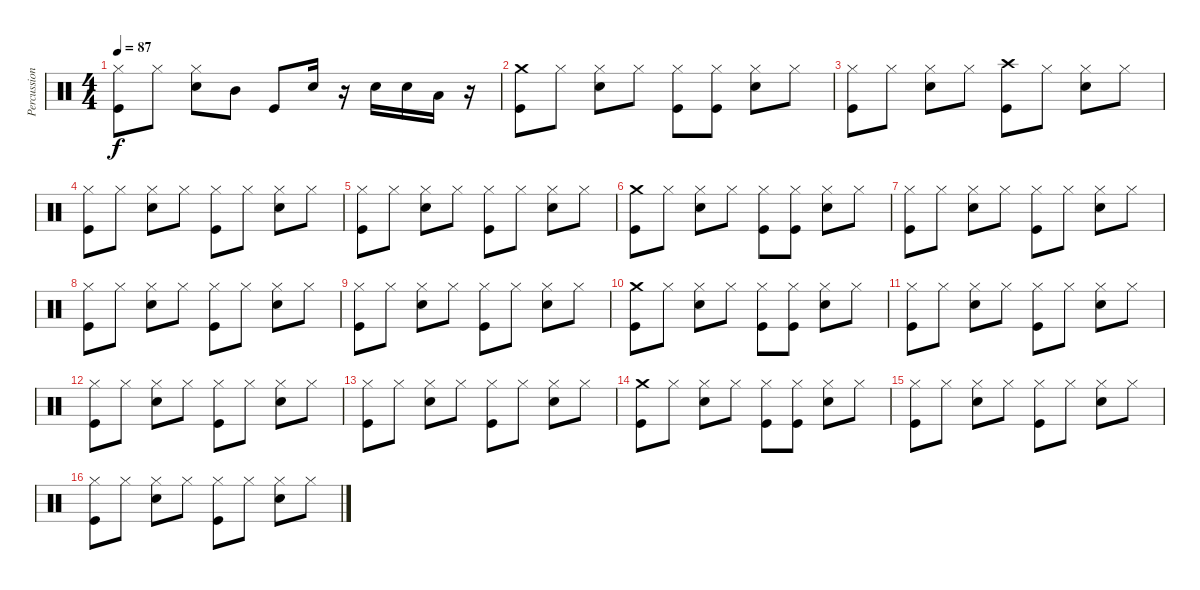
\track ("Percussion" "Percussion") {instrument percussion}
\staff {score}
\articulation defaults
\ts (4 4)
\tempo 87
\clef neutral
\ks c
("Hi-Hat (closed)" "Kick (hit)").8{dy f} "Hi-Hat (closed)".8 ("Hi-Hat (closed)" "Electric Snare (hit)").8 "Mid Tom (hit)".8 "Kick (hit)".8 "Electric Snare (hit)".16 r.16 "Electric Snare (hit)".16 "Electric Snare (hit)".16 "Low Tom (hit)".16 r.16 |
("Crash medium (hit)" "Kick (hit)").8 "Hi-Hat (closed)".8 ("Hi-Hat (closed)" "Electric Snare (hit)").8 "Hi-Hat (closed)".8 ("Hi-Hat (closed)" "Kick (hit)").8 ("Hi-Hat (closed)" "Kick (hit)").8 ("Hi-Hat (closed)" "Electric Snare (hit)").8 "Hi-Hat (closed)".8 |
("Hi-Hat (closed)" "Kick (hit)").8 "Hi-Hat (closed)".8 ("Hi-Hat (closed)" "Electric Snare (hit)").8 "Hi-Hat (closed)".8 ("Crash high (hit)" "Kick (hit)").8 "Hi-Hat (closed)".8 ("Hi-Hat (closed)" "Electric Snare (hit)").8 "Hi-Hat (closed)".8 |
("Hi-Hat (closed)" "Kick (hit)").8 "Hi-Hat (closed)".8 ("Hi-Hat (closed)" "Electric Snare (hit)").8 "Hi-Hat (closed)".8 ("Hi-Hat (closed)" "Kick (hit)").8 "Hi-Hat (closed)".8 ("Hi-Hat (closed)" "Electric Snare (hit)").8 "Hi-Hat (closed)".8 |
("Hi-Hat (closed)" "Kick (hit)").8 "Hi-Hat (closed)".8 ("Hi-Hat (closed)" "Electric Snare (hit)").8 "Hi-Hat (closed)".8 ("Hi-Hat (closed)" "Kick (hit)").8 "Hi-Hat (closed)".8 ("Hi-Hat (closed)" "Electric Snare (hit)").8 "Hi-Hat (closed)".8 |
("Crash medium (hit)" "Kick (hit)").8 "Hi-Hat (closed)".8 ("Hi-Hat (closed)" "Electric Snare (hit)").8 "Hi-Hat (closed)".8 ("Hi-Hat (closed)" "Kick (hit)").8 ("Hi-Hat (closed)" "Kick (hit)").8 ("Hi-Hat (closed)" "Electric Snare (hit)").8 "Hi-Hat (closed)".8 |
("Hi-Hat (closed)" "Kick (hit)").8 "Hi-Hat (closed)".8 ("Hi-Hat (closed)" "Electric Snare (hit)").8 "Hi-Hat (closed)".8 ("Hi-Hat (closed)" "Kick (hit)").8 "Hi-Hat (closed)".8 ("Hi-Hat (closed)" "Electric Snare (hit)").8 "Hi-Hat (closed)".8 |
("Hi-Hat (closed)" "Kick (hit)").8 "Hi-Hat (closed)".8 ("Hi-Hat (closed)" "Electric Snare (hit)").8 "Hi-Hat (closed)".8 ("Hi-Hat (closed)" "Kick (hit)").8 "Hi-Hat (closed)".8 ("Hi-Hat (closed)" "Electric Snare (hit)").8 "Hi-Hat (closed)".8 |
("Hi-Hat (closed)" "Kick (hit)").8 "Hi-Hat (closed)".8 ("Hi-Hat (closed)" "Electric Snare (hit)").8 "Hi-Hat (closed)".8 ("Hi-Hat (closed)" "Kick (hit)").8 "Hi-Hat (closed)".8 ("Hi-Hat (closed)" "Electric Snare (hit)").8 "Hi-Hat (closed)".8 |
("Crash medium (hit)" "Kick (hit)").8 "Hi-Hat (closed)".8 ("Hi-Hat (closed)" "Electric Snare (hit)").8 "Hi-Hat (closed)".8 ("Hi-Hat (closed)" "Kick (hit)").8 ("Hi-Hat (closed)" "Kick (hit)").8 ("Hi-Hat (closed)" "Electric Snare (hit)").8 "Hi-Hat (closed)".8 |
("Hi-Hat (closed)" "Kick (hit)").8 "Hi-Hat (closed)".8 ("Hi-Hat (closed)" "Electric Snare (hit)").8 "Hi-Hat (closed)".8 ("Hi-Hat (closed)" "Kick (hit)").8 "Hi-Hat (closed)".8 ("Hi-Hat (closed)" "Electric Snare (hit)").8 "Hi-Hat (closed)".8 |
("Hi-Hat (closed)" "Kick (hit)").8 "Hi-Hat (closed)".8 ("Hi-Hat (closed)" "Electric Snare (hit)").8 "Hi-Hat (closed)".8 ("Hi-Hat (closed)" "Kick (hit)").8 "Hi-Hat (closed)".8 ("Hi-Hat (closed)" "Electric Snare (hit)").8 "Hi-Hat (closed)".8 |
("Hi-Hat (closed)" "Kick (hit)").8 "Hi-Hat (closed)".8 ("Hi-Hat (closed)" "Electric Snare (hit)").8 "Hi-Hat (closed)".8 ("Hi-Hat (closed)" "Kick (hit)").8 "Hi-Hat (closed)".8 ("Hi-Hat (closed)" "Electric Snare (hit)").8 "Hi-Hat (closed)".8 |
("Crash medium (hit)" "Kick (hit)").8 "Hi-Hat (closed)".8 ("Hi-Hat (closed)" "Electric Snare (hit)").8 "Hi-Hat (closed)".8 ("Hi-Hat (closed)" "Kick (hit)").8 ("Hi-Hat (closed)" "Kick (hit)").8 ("Hi-Hat (closed)" "Electric Snare (hit)").8 "Hi-Hat (closed)".8 |
("Hi-Hat (closed)" "Kick (hit)").8 "Hi-Hat (closed)".8 ("Hi-Hat (closed)" "Electric Snare (hit)").8 "Hi-Hat (closed)".8 ("Hi-Hat (closed)" "Kick (hit)").8 "Hi-Hat (closed)".8 ("Hi-Hat (closed)" "Electric Snare (hit)").8 "Hi-Hat (closed)".8 |
("Hi-Hat (closed)" "Kick (hit)").8 "Hi-Hat (closed)".8 ("Hi-Hat (closed)" "Electric Snare (hit)").8 "Hi-Hat (closed)".8 ("Hi-Hat (closed)" "Kick (hit)").8 "Hi-Hat (closed)".8 ("Hi-Hat (closed)" "Electric Snare (hit)").8 "Hi-Hat (closed)".8
